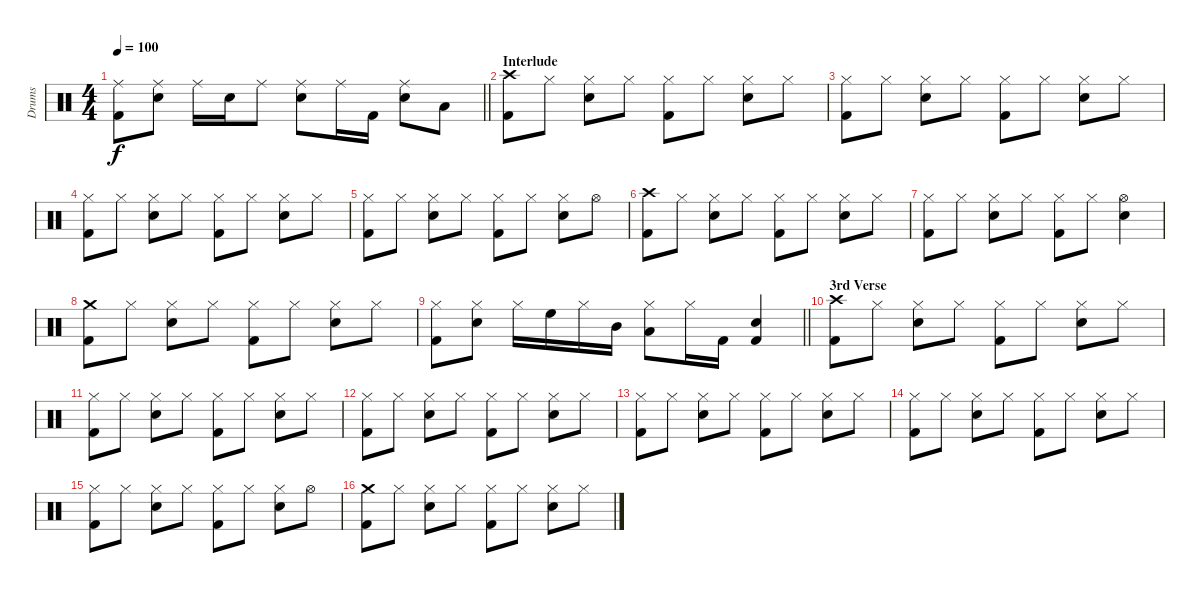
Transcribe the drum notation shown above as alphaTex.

\track ("Drums" "Drums") {instrument percussion}
\staff {score}
\articulation defaults
\ts (4 4)
\tempo 100
\clef neutral
\barLineRight lightlight
\ks c
("Ride (middle)" "Kick (hit) 2").8{dy f} ("Ride (middle)" "Snare (hit) 2").8 "Ride (middle)".16 "Snare (hit) 2".16 "Ride (middle)".8 ("Ride (middle)" "Snare (hit) 2").8 "Ride (middle)".16 "Kick (hit) 2".16 ("Ride (middle)" "Snare (hit) 2").8 "Low Tom (hit)".8 |
\section ("" "Interlude")
("Crash high (hit)" "Kick (hit) 2").8 "Hi-Hat (closed)".8 ("Hi-Hat (closed)" "Snare (hit) 2").8 "Hi-Hat (closed)".8 ("Hi-Hat (closed)" "Kick (hit) 2").8 "Hi-Hat (closed)".8 ("Hi-Hat (closed)" "Snare (hit) 2").8 "Hi-Hat (closed)".8 |
("Hi-Hat (closed)" "Kick (hit) 2").8 "Hi-Hat (closed)".8 ("Hi-Hat (closed)" "Snare (hit) 2").8 "Hi-Hat (closed)".8 ("Hi-Hat (closed)" "Kick (hit) 2").8 "Hi-Hat (closed)".8 ("Hi-Hat (closed)" "Snare (hit) 2").8 "Hi-Hat (closed)".8 |
("Hi-Hat (closed)" "Kick (hit) 2").8 "Hi-Hat (closed)".8 ("Hi-Hat (closed)" "Snare (hit) 2").8 "Hi-Hat (closed)".8 ("Hi-Hat (closed)" "Kick (hit) 2").8 "Hi-Hat (closed)".8 ("Hi-Hat (closed)" "Snare (hit) 2").8 "Hi-Hat (closed)".8 |
("Hi-Hat (closed)" "Kick (hit) 2").8 "Hi-Hat (closed)".8 ("Hi-Hat (closed)" "Snare (hit) 2").8 "Hi-Hat (closed)".8 ("Hi-Hat (closed)" "Kick (hit) 2").8 "Hi-Hat (closed)".8 ("Hi-Hat (closed)" "Snare (hit) 2").8 "Hi-Hat (open)".8 |
("Crash high (hit)" "Kick (hit) 2").8 "Hi-Hat (closed)".8 ("Hi-Hat (closed)" "Snare (hit) 2").8 "Hi-Hat (closed)".8 ("Hi-Hat (closed)" "Kick (hit) 2").8 "Hi-Hat (closed)".8 ("Hi-Hat (closed)" "Snare (hit) 2").8 "Hi-Hat (closed)".8 |
("Hi-Hat (closed)" "Kick (hit) 2").8 "Hi-Hat (closed)".8 ("Hi-Hat (closed)" "Snare (hit) 2").8 "Hi-Hat (closed)".8 ("Hi-Hat (closed)" "Kick (hit) 2").8 "Hi-Hat (closed)".8 ("Hi-Hat (open)" "Snare (hit) 2").4 |
("Crash medium (hit)" "Kick (hit) 2").8 "Hi-Hat (closed)".8 ("Hi-Hat (closed)" "Snare (hit) 2").8 "Hi-Hat (closed)".8 ("Hi-Hat (closed)" "Kick (hit) 2").8 "Hi-Hat (closed)".8 ("Hi-Hat (closed)" "Snare (hit) 2").8 "Hi-Hat (closed)".8 |
\barLineRight lightlight
("Hi-Hat (closed)" "Kick (hit) 2").8 ("Hi-Hat (closed)" "Snare (hit) 2").8 "Hi-Hat (closed)".16 "High Floor Tom (hit)".16 "Hi-Hat (closed)".16 "Mid Tom (hit)".16 ("Hi-Hat (closed)" "Low Tom (hit)").8 "Hi-Hat (closed)".16 "Kick (hit) 2".16 ("Snare (hit) 2" "Kick (hit) 2").4 |
\section ("" "3rd Verse")
("Crash high (hit)" "Kick (hit) 2").8 "Hi-Hat (closed)".8 ("Hi-Hat (closed)" "Snare (hit) 2").8 "Hi-Hat (closed)".8 ("Hi-Hat (closed)" "Kick (hit) 2").8 "Hi-Hat (closed)".8 ("Hi-Hat (closed)" "Snare (hit) 2").8 "Hi-Hat (closed)".8 |
("Hi-Hat (closed)" "Kick (hit) 2").8 "Hi-Hat (closed)".8 ("Hi-Hat (closed)" "Snare (hit) 2").8 "Hi-Hat (closed)".8 ("Hi-Hat (closed)" "Kick (hit) 2").8 "Hi-Hat (closed)".8 ("Hi-Hat (closed)" "Snare (hit) 2").8 "Hi-Hat (closed)".8 |
("Hi-Hat (closed)" "Kick (hit) 2").8 "Hi-Hat (closed)".8 ("Hi-Hat (closed)" "Snare (hit) 2").8 "Hi-Hat (closed)".8 ("Hi-Hat (closed)" "Kick (hit) 2").8 "Hi-Hat (closed)".8 ("Hi-Hat (closed)" "Snare (hit) 2").8 "Hi-Hat (closed)".8 |
("Hi-Hat (closed)" "Kick (hit) 2").8 "Hi-Hat (closed)".8 ("Hi-Hat (closed)" "Snare (hit) 2").8 "Hi-Hat (closed)".8 ("Hi-Hat (closed)" "Kick (hit) 2").8 "Hi-Hat (closed)".8 ("Hi-Hat (closed)" "Snare (hit) 2").8 "Hi-Hat (closed)".8 |
("Hi-Hat (closed)" "Kick (hit) 2").8 "Hi-Hat (closed)".8 ("Hi-Hat (closed)" "Snare (hit) 2").8 "Hi-Hat (closed)".8 ("Hi-Hat (closed)" "Kick (hit) 2").8 "Hi-Hat (closed)".8 ("Hi-Hat (closed)" "Snare (hit) 2").8 "Hi-Hat (closed)".8 |
("Hi-Hat (closed)" "Kick (hit) 2").8 "Hi-Hat (closed)".8 ("Hi-Hat (closed)" "Snare (hit) 2").8 "Hi-Hat (closed)".8 ("Hi-Hat (closed)" "Kick (hit) 2").8 "Hi-Hat (closed)".8 ("Hi-Hat (closed)" "Snare (hit) 2").8 "Hi-Hat (open)".8 |
("Crash medium (hit)" "Kick (hit) 2").8 "Hi-Hat (closed)".8 ("Hi-Hat (closed)" "Snare (hit) 2").8 "Hi-Hat (closed)".8 ("Hi-Hat (closed)" "Kick (hit) 2").8 "Hi-Hat (closed)".8 ("Hi-Hat (closed)" "Snare (hit) 2").8 "Hi-Hat (closed)".8
